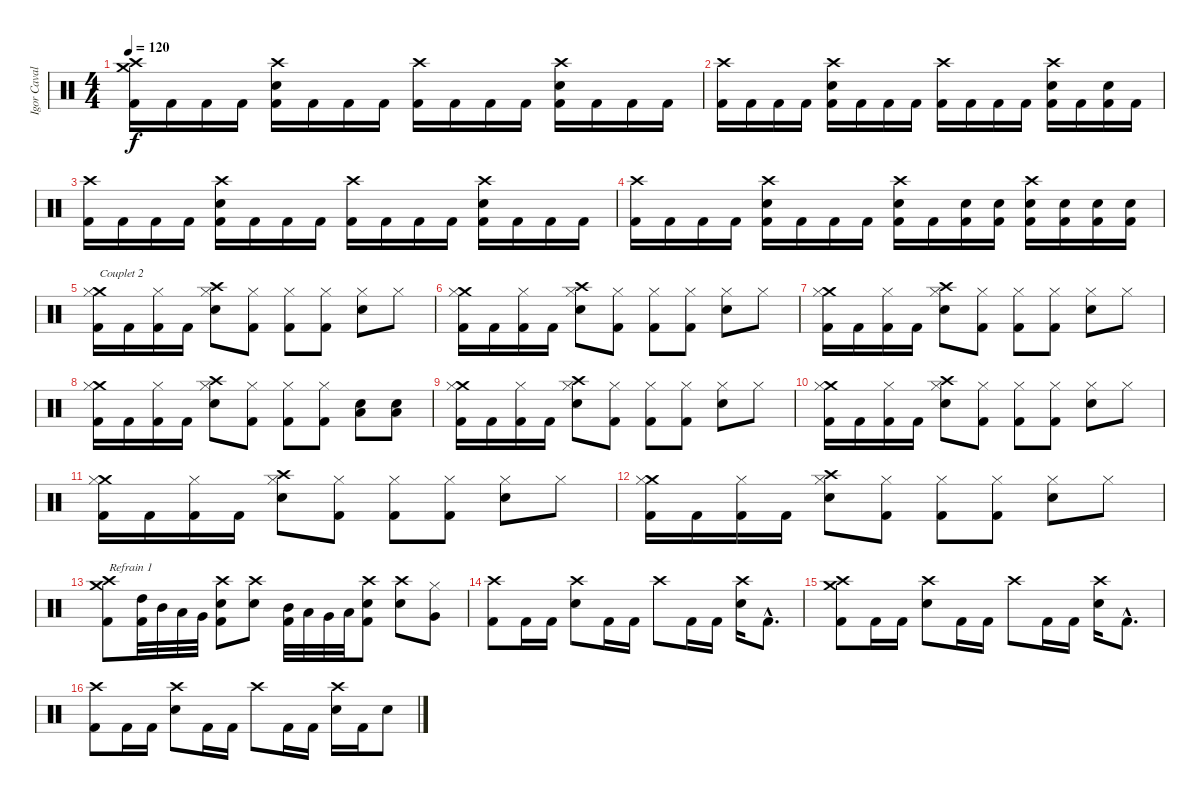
\track ("Igor Cavalera" "Igor Caval") {instrument percussion}
\staff {score}
\articulation defaults
\ts (4 4)
\tempo 120
\clef neutral
\ks c
("Crash medium (hit)" "Crash high (hit)" "Kick (hit) 2").16{dy f} "Kick (hit) 2".16 "Kick (hit) 2".16 "Kick (hit) 2".16 ("Crash high (hit)" "Electric Snare (hit)" "Kick (hit) 2").16 "Kick (hit) 2".16 "Kick (hit) 2".16 "Kick (hit) 2".16 ("Crash high (hit)" "Kick (hit) 2").16 "Kick (hit) 2".16 "Kick (hit) 2".16 "Kick (hit) 2".16 ("Crash high (hit)" "Electric Snare (hit)" "Kick (hit) 2").16 "Kick (hit) 2".16 "Kick (hit) 2".16 "Kick (hit) 2".16 |
("Crash high (hit)" "Kick (hit) 2").16 "Kick (hit) 2".16 "Kick (hit) 2".16 "Kick (hit) 2".16 ("Crash high (hit)" "Electric Snare (hit)" "Kick (hit) 2").16 "Kick (hit) 2".16 "Kick (hit) 2".16 "Kick (hit) 2".16 ("Crash high (hit)" "Kick (hit) 2").16 "Kick (hit) 2".16 "Kick (hit) 2".16 "Kick (hit) 2".16 ("Crash high (hit)" "Electric Snare (hit)" "Kick (hit) 2").16 "Kick (hit) 2".16 ("Electric Snare (hit)" "Kick (hit) 2").16 "Kick (hit) 2".16 |
("Crash high (hit)" "Kick (hit) 2").16 "Kick (hit) 2".16 "Kick (hit) 2".16 "Kick (hit) 2".16 ("Crash high (hit)" "Electric Snare (hit)" "Kick (hit) 2").16 "Kick (hit) 2".16 "Kick (hit) 2".16 "Kick (hit) 2".16 ("Crash high (hit)" "Kick (hit) 2").16 "Kick (hit) 2".16 "Kick (hit) 2".16 "Kick (hit) 2".16 ("Crash high (hit)" "Electric Snare (hit)" "Kick (hit) 2").16 "Kick (hit) 2".16 "Kick (hit) 2".16 "Kick (hit) 2".16 |
("Crash high (hit)" "Kick (hit) 2").16 "Kick (hit) 2".16 "Kick (hit) 2".16 "Kick (hit) 2".16 ("Crash high (hit)" "Electric Snare (hit)" "Kick (hit) 2").16 "Kick (hit) 2".16 "Kick (hit) 2".16 "Kick (hit) 2".16 ("Crash high (hit)" "Electric Snare (hit)" "Kick (hit) 2").16 "Kick (hit) 2".16 ("Electric Snare (hit)" "Kick (hit) 2").16 ("Electric Snare (hit)" "Kick (hit) 2").16 ("Crash high (hit)" "Electric Snare (hit)" "Kick (hit) 2").16 ("Electric Snare (hit)" "Kick (hit) 2").16 ("Electric Snare (hit)" "Kick (hit) 2").16 ("Electric Snare (hit)" "Kick (hit) 2").16 |
("Crash medium (hit)" "Hi-Hat (closed)" "Kick (hit) 2").16{txt "Couplet 2"} "Kick (hit) 2".16 ("Hi-Hat (closed)" "Kick (hit) 2").16 "Kick (hit) 2".16 ("Crash high (hit)" "Electric Snare (hit)" "Hi-Hat (closed)").8 ("Hi-Hat (closed)" "Kick (hit) 2").8 ("Hi-Hat (closed)" "Kick (hit) 2").8 ("Hi-Hat (closed)" "Kick (hit) 2").8 ("Electric Snare (hit)" "Hi-Hat (closed)").8 "Hi-Hat (closed)".8 |
("Crash medium (hit)" "Hi-Hat (closed)" "Kick (hit) 2").16 "Kick (hit) 2".16 ("Hi-Hat (closed)" "Kick (hit) 2").16 "Kick (hit) 2".16 ("Crash high (hit)" "Electric Snare (hit)" "Hi-Hat (closed)").8 ("Hi-Hat (closed)" "Kick (hit) 2").8 ("Hi-Hat (closed)" "Kick (hit) 2").8 ("Hi-Hat (closed)" "Kick (hit) 2").8 ("Electric Snare (hit)" "Hi-Hat (closed)").8 "Hi-Hat (closed)".8 |
("Crash medium (hit)" "Hi-Hat (closed)" "Kick (hit) 2").16 "Kick (hit) 2".16 ("Hi-Hat (closed)" "Kick (hit) 2").16 "Kick (hit) 2".16 ("Crash high (hit)" "Electric Snare (hit)" "Hi-Hat (closed)").8 ("Hi-Hat (closed)" "Kick (hit) 2").8 ("Hi-Hat (closed)" "Kick (hit) 2").8 ("Hi-Hat (closed)" "Kick (hit) 2").8 ("Electric Snare (hit)" "Hi-Hat (closed)").8 "Hi-Hat (closed)".8 |
("Crash medium (hit)" "Hi-Hat (closed)" "Kick (hit) 2").16 "Kick (hit) 2".16 ("Hi-Hat (closed)" "Kick (hit) 2").16 "Kick (hit) 2".16 ("Crash high (hit)" "Electric Snare (hit)" "Hi-Hat (closed)").8 ("Hi-Hat (closed)" "Kick (hit) 2").8 ("Hi-Hat (closed)" "Kick (hit) 2").8 ("Hi-Hat (closed)" "Kick (hit) 2").8 ("Low Floor Tom (hit)" "Electric Snare (hit)").8 ("Low Floor Tom (hit)" "Electric Snare (hit)").8 |
("Crash medium (hit)" "Hi-Hat (closed)" "Kick (hit) 2").16 "Kick (hit) 2".16 ("Hi-Hat (closed)" "Kick (hit) 2").16 "Kick (hit) 2".16 ("Crash high (hit)" "Electric Snare (hit)" "Hi-Hat (closed)").8 ("Hi-Hat (closed)" "Kick (hit) 2").8 ("Hi-Hat (closed)" "Kick (hit) 2").8 ("Hi-Hat (closed)" "Kick (hit) 2").8 ("Electric Snare (hit)" "Hi-Hat (closed)").8 "Hi-Hat (closed)".8 |
("Crash medium (hit)" "Hi-Hat (closed)" "Kick (hit) 2").16 "Kick (hit) 2".16 ("Hi-Hat (closed)" "Kick (hit) 2").16 "Kick (hit) 2".16 ("Crash high (hit)" "Electric Snare (hit)" "Hi-Hat (closed)").8 ("Hi-Hat (closed)" "Kick (hit) 2").8 ("Hi-Hat (closed)" "Kick (hit) 2").8 ("Hi-Hat (closed)" "Kick (hit) 2").8 ("Electric Snare (hit)" "Hi-Hat (closed)").8 "Hi-Hat (closed)".8 |
("Crash medium (hit)" "Hi-Hat (closed)" "Kick (hit) 2").16 "Kick (hit) 2".16 ("Hi-Hat (closed)" "Kick (hit) 2").16 "Kick (hit) 2".16 ("Crash high (hit)" "Electric Snare (hit)" "Hi-Hat (closed)").8 ("Hi-Hat (closed)" "Kick (hit) 2").8 ("Hi-Hat (closed)" "Kick (hit) 2").8 ("Hi-Hat (closed)" "Kick (hit) 2").8 ("Electric Snare (hit)" "Hi-Hat (closed)").8 "Hi-Hat (closed)".8 |
("Crash medium (hit)" "Hi-Hat (closed)" "Kick (hit) 2").16 "Kick (hit) 2".16 ("Hi-Hat (closed)" "Kick (hit) 2").16 "Kick (hit) 2".16 ("Crash high (hit)" "Electric Snare (hit)" "Hi-Hat (closed)").8 ("Hi-Hat (closed)" "Kick (hit) 2").8 ("Hi-Hat (closed)" "Kick (hit) 2").8 ("Hi-Hat (closed)" "Kick (hit) 2").8 ("Electric Snare (hit)" "Hi-Hat (closed)").8 "Hi-Hat (closed)".8 |
("Crash medium (hit)" "Crash high (hit)" "Kick (hit) 2").8{txt "Refrain 1"} ("High Tom (hit)" "Kick (hit) 2").32 "Mid Tom (hit)".32 "Low Tom (hit)".32 "Very Low Tom (hit)".32 ("Crash high (hit)" "Electric Snare (hit)" "Kick (hit) 2").8 ("Crash high (hit)" "Electric Snare (hit)").8 ("Mid Tom (hit)" "Kick (hit) 2").32 "Low Tom (hit)".32 "Very Low Tom (hit)".32 "Low Floor Tom (hit)".32 ("Crash high (hit)" "Electric Snare (hit)" "Kick (hit) 2").8 ("Crash high (hit)" "Electric Snare (hit)").8 ("Very Low Tom (hit)" "Hi-Hat (closed)").8 |
("Crash high (hit)" "Kick (hit) 2").8 "Kick (hit) 2".16 "Kick (hit) 2".16 ("Crash high (hit)" "Electric Snare (hit)").8 "Kick (hit) 2".16 "Kick (hit) 2".16 "Crash high (hit)".8 "Kick (hit) 2".16 "Kick (hit) 2".16 ("Crash high (hit)" "Electric Snare (hit)").16 "Kick (hit) 2"{hac}.8{d} |
("Crash medium (hit)" "Crash high (hit)" "Kick (hit) 2").8 "Kick (hit) 2".16 "Kick (hit) 2".16 ("Crash high (hit)" "Electric Snare (hit)").8 "Kick (hit) 2".16 "Kick (hit) 2".16 "Crash high (hit)".8 "Kick (hit) 2".16 "Kick (hit) 2".16 ("Crash high (hit)" "Electric Snare (hit)").16 "Kick (hit) 2"{hac}.8{d} |
("Crash high (hit)" "Kick (hit) 2").8 "Kick (hit) 2".16 "Kick (hit) 2".16 ("Crash high (hit)" "Electric Snare (hit)").8 "Kick (hit) 2".16 "Kick (hit) 2".16 "Crash high (hit)".8 "Kick (hit) 2".16 "Kick (hit) 2".16 ("Crash high (hit)" "Electric Snare (hit)").16 "Kick (hit) 2".16 "Electric Snare (hit)".8
